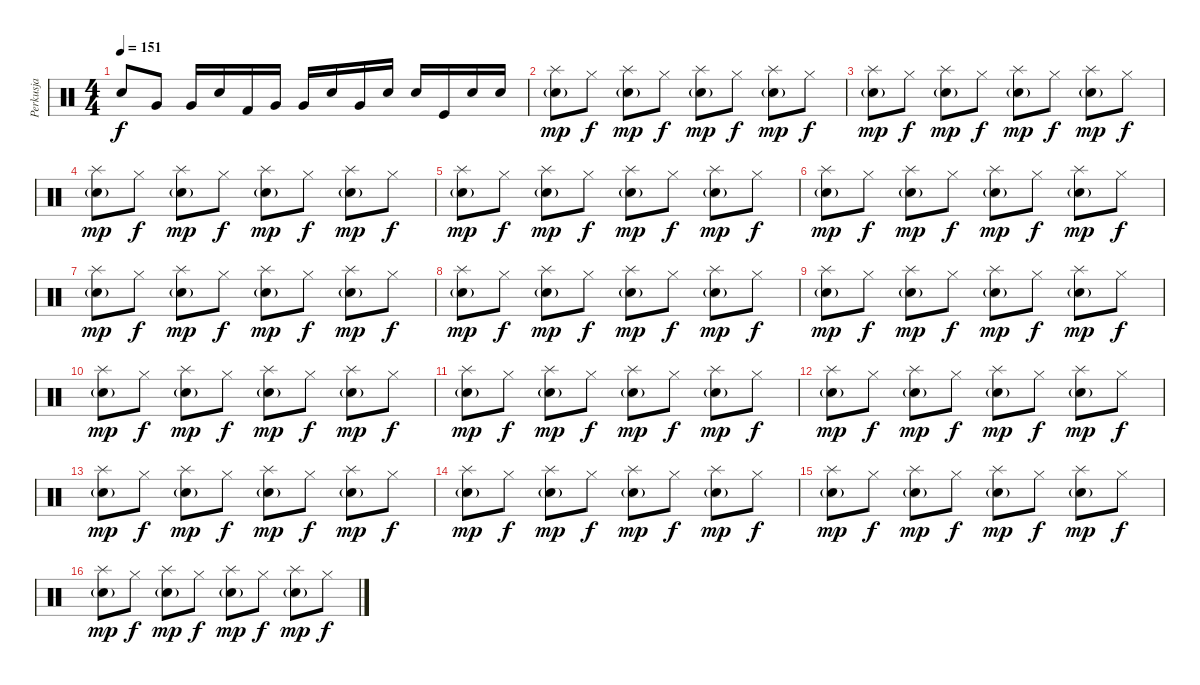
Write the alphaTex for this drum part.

\track ("Perkusja" "Perkusja") {instrument percussion}
\staff {score}
\articulation defaults
\ts (4 4)
\tempo 151
\clef neutral
\ks c "Snare (hit) 2".8{dy f} "Very Low Tom (hit)".8 "Very Low Tom (hit)".16 "Snare (hit) 2".16 "Kick (hit) 2".16 "Very Low Tom (hit)".16 "Very Low Tom (hit)".16 "Snare (hit) 2".16 "Very Low Tom (hit)".16 "Snare (hit) 2".16 "Snare (hit) 2".16 "Kick (hit)".16 "Snare (hit) 2".16 "Snare (hit) 2".16
|
("Splash (hit)" "Snare (hit) 2"{g}).8{dy mp} "Hi-Hat (closed)".8{dy f} ("Splash (hit)" "Snare (hit) 2"{g}).8{dy mp} "Hi-Hat (closed)".8{dy f} ("Splash (hit)" "Snare (hit) 2"{g}).8{dy mp} "Hi-Hat (closed)".8{dy f} ("Splash (hit)" "Snare (hit) 2"{g}).8{dy mp} "Hi-Hat (closed)".8{dy f} |
("Splash (hit)" "Snare (hit) 2"{g}).8{dy mp} "Hi-Hat (closed)".8{dy f} ("Splash (hit)" "Snare (hit) 2"{g}).8{dy mp} "Hi-Hat (closed)".8{dy f} ("Splash (hit)" "Snare (hit) 2"{g}).8{dy mp} "Hi-Hat (closed)".8{dy f} ("Splash (hit)" "Snare (hit) 2"{g}).8{dy mp} "Hi-Hat (closed)".8{dy f} |
("Splash (hit)" "Snare (hit) 2"{g}).8{dy mp} "Hi-Hat (closed)".8{dy f} ("Splash (hit)" "Snare (hit) 2"{g}).8{dy mp} "Hi-Hat (closed)".8{dy f} ("Splash (hit)" "Snare (hit) 2"{g}).8{dy mp} "Hi-Hat (closed)".8{dy f} ("Splash (hit)" "Snare (hit) 2"{g}).8{dy mp} "Hi-Hat (closed)".8{dy f} |
("Splash (hit)" "Snare (hit) 2"{g}).8{dy mp} "Hi-Hat (closed)".8{dy f} ("Splash (hit)" "Snare (hit) 2"{g}).8{dy mp} "Hi-Hat (closed)".8{dy f} ("Splash (hit)" "Snare (hit) 2"{g}).8{dy mp} "Hi-Hat (closed)".8{dy f} ("Splash (hit)" "Snare (hit) 2"{g}).8{dy mp} "Hi-Hat (closed)".8{dy f} |
("Splash (hit)" "Snare (hit) 2"{g}).8{dy mp} "Hi-Hat (closed)".8{dy f} ("Splash (hit)" "Snare (hit) 2"{g}).8{dy mp} "Hi-Hat (closed)".8{dy f} ("Splash (hit)" "Snare (hit) 2"{g}).8{dy mp} "Hi-Hat (closed)".8{dy f} ("Splash (hit)" "Snare (hit) 2"{g}).8{dy mp} "Hi-Hat (closed)".8{dy f} |
("Splash (hit)" "Snare (hit) 2"{g}).8{dy mp} "Hi-Hat (closed)".8{dy f} ("Splash (hit)" "Snare (hit) 2"{g}).8{dy mp} "Hi-Hat (closed)".8{dy f} ("Splash (hit)" "Snare (hit) 2"{g}).8{dy mp} "Hi-Hat (closed)".8{dy f} ("Splash (hit)" "Snare (hit) 2"{g}).8{dy mp} "Hi-Hat (closed)".8{dy f} |
("Splash (hit)" "Snare (hit) 2"{g}).8{dy mp} "Hi-Hat (closed)".8{dy f} ("Splash (hit)" "Snare (hit) 2"{g}).8{dy mp} "Hi-Hat (closed)".8{dy f} ("Splash (hit)" "Snare (hit) 2"{g}).8{dy mp} "Hi-Hat (closed)".8{dy f} ("Splash (hit)" "Snare (hit) 2"{g}).8{dy mp} "Hi-Hat (closed)".8{dy f} |
("Splash (hit)" "Snare (hit) 2"{g}).8{dy mp} "Hi-Hat (closed)".8{dy f} ("Splash (hit)" "Snare (hit) 2"{g}).8{dy mp} "Hi-Hat (closed)".8{dy f} ("Splash (hit)" "Snare (hit) 2"{g}).8{dy mp} "Hi-Hat (closed)".8{dy f} ("Splash (hit)" "Snare (hit) 2"{g}).8{dy mp} "Hi-Hat (closed)".8{dy f} |
("Splash (hit)" "Snare (hit) 2"{g}).8{dy mp} "Hi-Hat (closed)".8{dy f} ("Splash (hit)" "Snare (hit) 2"{g}).8{dy mp} "Hi-Hat (closed)".8{dy f} ("Splash (hit)" "Snare (hit) 2"{g}).8{dy mp} "Hi-Hat (closed)".8{dy f} ("Splash (hit)" "Snare (hit) 2"{g}).8{dy mp} "Hi-Hat (closed)".8{dy f} |
("Splash (hit)" "Snare (hit) 2"{g}).8{dy mp} "Hi-Hat (closed)".8{dy f} ("Splash (hit)" "Snare (hit) 2"{g}).8{dy mp} "Hi-Hat (closed)".8{dy f} ("Splash (hit)" "Snare (hit) 2"{g}).8{dy mp} "Hi-Hat (closed)".8{dy f} ("Splash (hit)" "Snare (hit) 2"{g}).8{dy mp} "Hi-Hat (closed)".8{dy f} |
("Splash (hit)" "Snare (hit) 2"{g}).8{dy mp} "Hi-Hat (closed)".8{dy f} ("Splash (hit)" "Snare (hit) 2"{g}).8{dy mp} "Hi-Hat (closed)".8{dy f} ("Splash (hit)" "Snare (hit) 2"{g}).8{dy mp} "Hi-Hat (closed)".8{dy f} ("Splash (hit)" "Snare (hit) 2"{g}).8{dy mp} "Hi-Hat (closed)".8{dy f} |
("Splash (hit)" "Snare (hit) 2"{g}).8{dy mp} "Hi-Hat (closed)".8{dy f} ("Splash (hit)" "Snare (hit) 2"{g}).8{dy mp} "Hi-Hat (closed)".8{dy f} ("Splash (hit)" "Snare (hit) 2"{g}).8{dy mp} "Hi-Hat (closed)".8{dy f} ("Splash (hit)" "Snare (hit) 2"{g}).8{dy mp} "Hi-Hat (closed)".8{dy f} |
("Splash (hit)" "Snare (hit) 2"{g}).8{dy mp} "Hi-Hat (closed)".8{dy f} ("Splash (hit)" "Snare (hit) 2"{g}).8{dy mp} "Hi-Hat (closed)".8{dy f} ("Splash (hit)" "Snare (hit) 2"{g}).8{dy mp} "Hi-Hat (closed)".8{dy f} ("Splash (hit)" "Snare (hit) 2"{g}).8{dy mp} "Hi-Hat (closed)".8{dy f} |
("Splash (hit)" "Snare (hit) 2"{g}).8{dy mp} "Hi-Hat (closed)".8{dy f} ("Splash (hit)" "Snare (hit) 2"{g}).8{dy mp} "Hi-Hat (closed)".8{dy f} ("Splash (hit)" "Snare (hit) 2"{g}).8{dy mp} "Hi-Hat (closed)".8{dy f} ("Splash (hit)" "Snare (hit) 2"{g}).8{dy mp} "Hi-Hat (closed)".8{dy f} |
("Splash (hit)" "Snare (hit) 2"{g}).8{dy mp} "Hi-Hat (closed)".8{dy f} ("Splash (hit)" "Snare (hit) 2"{g}).8{dy mp} "Hi-Hat (closed)".8{dy f} ("Splash (hit)" "Snare (hit) 2"{g}).8{dy mp} "Hi-Hat (closed)".8{dy f} ("Splash (hit)" "Snare (hit) 2"{g}).8{dy mp} "Hi-Hat (closed)".8{dy f}
